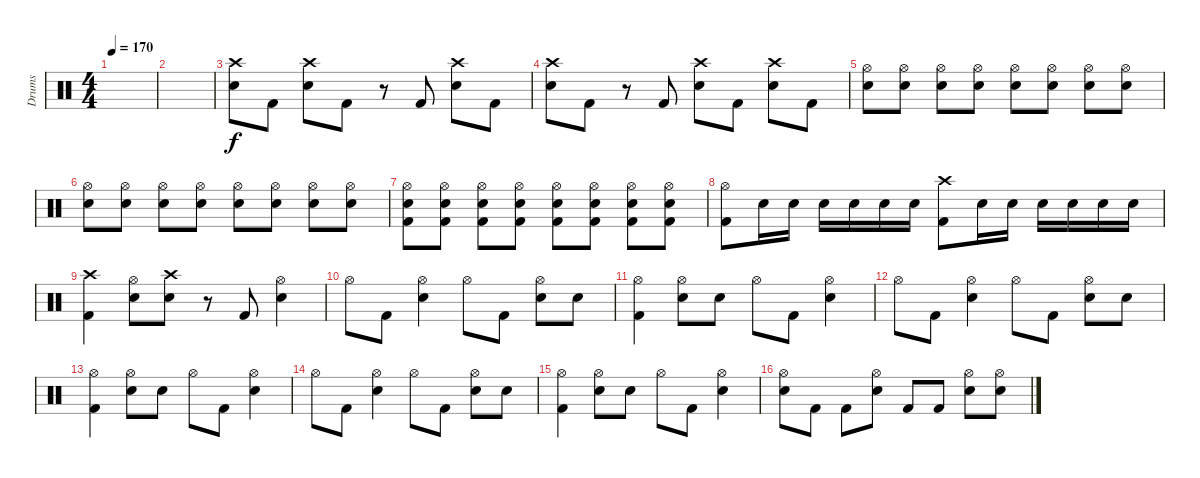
\track ("Drums" "Drums") {instrument percussion}
\staff {score}
\articulation defaults
\ts (4 4)
\tempo 170
\clef neutral
\ks c
|
|
("Crash high (hit)" "Electric Snare (hit)").8 "Kick (hit) 2".8 ("Crash high (hit)" "Electric Snare (hit)").8 "Kick (hit) 2".8 r.8 "Kick (hit) 2".8 ("Crash high (hit)" "Electric Snare (hit)").8 "Kick (hit) 2".8 |
("Crash high (hit)" "Electric Snare (hit)").8 "Kick (hit) 2".8 r.8 "Kick (hit) 2".8 ("Crash high (hit)" "Electric Snare (hit)").8 "Kick (hit) 2".8 ("Crash high (hit)" "Electric Snare (hit)").8 "Kick (hit) 2".8 |
("Hi-Hat (open)" "Electric Snare (hit)").8 ("Hi-Hat (open)" "Electric Snare (hit)").8 ("Hi-Hat (open)" "Electric Snare (hit)").8 ("Hi-Hat (open)" "Electric Snare (hit)").8 ("Hi-Hat (open)" "Electric Snare (hit)").8 ("Hi-Hat (open)" "Electric Snare (hit)").8 ("Hi-Hat (open)" "Electric Snare (hit)").8 ("Hi-Hat (open)" "Electric Snare (hit)").8 |
("Hi-Hat (open)" "Electric Snare (hit)").8 ("Hi-Hat (open)" "Electric Snare (hit)").8 ("Hi-Hat (open)" "Electric Snare (hit)").8 ("Hi-Hat (open)" "Electric Snare (hit)").8 ("Hi-Hat (open)" "Electric Snare (hit)").8 ("Hi-Hat (open)" "Electric Snare (hit)").8 ("Hi-Hat (open)" "Electric Snare (hit)").8 ("Hi-Hat (open)" "Electric Snare (hit)").8 |
("Hi-Hat (open)" "Electric Snare (hit)" "Kick (hit) 2").8 ("Hi-Hat (open)" "Electric Snare (hit)" "Kick (hit) 2").8 ("Hi-Hat (open)" "Electric Snare (hit)" "Kick (hit) 2").8 ("Hi-Hat (open)" "Electric Snare (hit)" "Kick (hit) 2").8 ("Hi-Hat (open)" "Electric Snare (hit)" "Kick (hit) 2").8 ("Hi-Hat (open)" "Electric Snare (hit)" "Kick (hit) 2").8 ("Hi-Hat (open)" "Electric Snare (hit)" "Kick (hit) 2").8 ("Hi-Hat (open)" "Electric Snare (hit)" "Kick (hit) 2").8 |
("Hi-Hat (open)" "Kick (hit) 2").8 "Electric Snare (hit)".16 "Electric Snare (hit)".16 "Electric Snare (hit)".16 "Electric Snare (hit)".16 "Electric Snare (hit)".16 "Electric Snare (hit)".16 ("Crash high (hit)" "Kick (hit) 2").8 "Electric Snare (hit)".16 "Electric Snare (hit)".16 "Electric Snare (hit)".16 "Electric Snare (hit)".16 "Electric Snare (hit)".16 "Electric Snare (hit)".16 |
("Crash high (hit)" "Kick (hit) 2").4 ("Hi-Hat (open)" "Electric Snare (hit)").8 ("Crash high (hit)" "Electric Snare (hit)").8 r.8 "Kick (hit) 2".8 ("Hi-Hat (open)" "Electric Snare (hit)").4 |
"Hi-Hat (open)".8 "Kick (hit) 2".8 ("Hi-Hat (open)" "Electric Snare (hit)").4 "Hi-Hat (open)".8 "Kick (hit) 2".8 ("Hi-Hat (open)" "Electric Snare (hit)").8 "Electric Snare (hit)".8 |
("Hi-Hat (open)" "Kick (hit) 2").4 ("Hi-Hat (open)" "Electric Snare (hit)").8 "Electric Snare (hit)".8 "Hi-Hat (open)".8 "Kick (hit) 2".8 ("Hi-Hat (open)" "Electric Snare (hit)").4 |
"Hi-Hat (open)".8 "Kick (hit) 2".8 ("Hi-Hat (open)" "Electric Snare (hit)").4 "Hi-Hat (open)".8 "Kick (hit) 2".8 ("Hi-Hat (open)" "Electric Snare (hit)").8 "Electric Snare (hit)".8 |
("Hi-Hat (open)" "Kick (hit) 2").4 ("Hi-Hat (open)" "Electric Snare (hit)").8 "Electric Snare (hit)".8 "Hi-Hat (open)".8 "Kick (hit) 2".8 ("Hi-Hat (open)" "Electric Snare (hit)").4 |
"Hi-Hat (open)".8 "Kick (hit) 2".8 ("Hi-Hat (open)" "Electric Snare (hit)").4 "Hi-Hat (open)".8 "Kick (hit) 2".8 ("Hi-Hat (open)" "Electric Snare (hit)").8 "Electric Snare (hit)".8 |
("Hi-Hat (open)" "Kick (hit) 2").4 ("Hi-Hat (open)" "Electric Snare (hit)").8 "Electric Snare (hit)".8 "Hi-Hat (open)".8 "Kick (hit) 2".8 ("Hi-Hat (open)" "Electric Snare (hit)").4 |
("Hi-Hat (open)" "Electric Snare (hit)").8 "Kick (hit) 2".8 "Kick (hit) 2".8 ("Hi-Hat (open)" "Electric Snare (hit)").8 "Kick (hit) 2".8 "Kick (hit) 2".8 ("Hi-Hat (open)" "Electric Snare (hit)").8 ("Hi-Hat (open)" "Electric Snare (hit)").8
